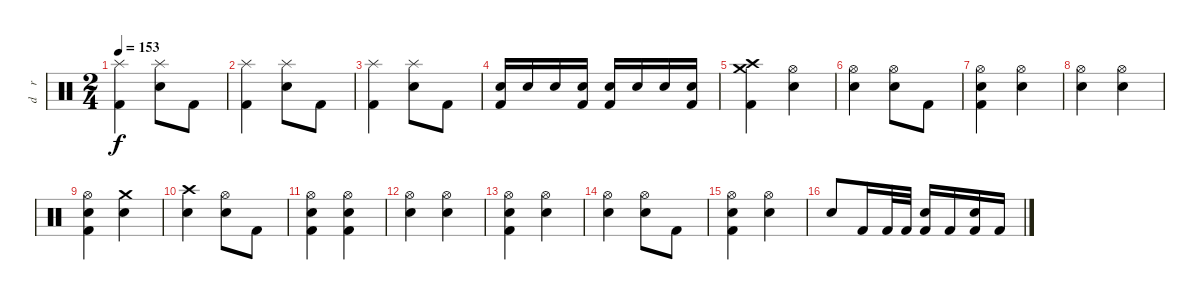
\track ("d    r     u    m    s" "d    r    ") {instrument percussion}
\staff {score}
\articulation defaults
\ts (2 4)
\tempo 153
\clef neutral
\ks c
("Splash (hit)" "Kick (hit) 2").4{dy f} ("Splash (hit)" "Electric Snare (hit)").8 "Kick (hit) 2".8 |
("Splash (hit)" "Kick (hit) 2").4 ("Splash (hit)" "Electric Snare (hit)").8 "Kick (hit) 2".8 |
("Splash (hit)" "Kick (hit) 2").4 ("Splash (hit)" "Electric Snare (hit)").8 "Kick (hit) 2".8 |
("Electric Snare (hit)" "Kick (hit) 2").16 "Electric Snare (hit)".16 "Electric Snare (hit)".16 ("Electric Snare (hit)" "Kick (hit) 2").16 ("Electric Snare (hit)" "Kick (hit) 2").16 "Electric Snare (hit)".16 "Electric Snare (hit)".16 ("Electric Snare (hit)" "Kick (hit) 2").16 |
("Crash high (hit)" "Crash medium (hit)" "Kick (hit) 2").4 ("Hi-Hat (open)" "Electric Snare (hit)").4 |
("Hi-Hat (open)" "Electric Snare (hit)").4 ("Hi-Hat (open)" "Electric Snare (hit)").8 "Kick (hit) 2".8 |
("Hi-Hat (open)" "Electric Snare (hit)" "Kick (hit) 2").4 ("Hi-Hat (open)" "Electric Snare (hit)").4 |
("Hi-Hat (open)" "Electric Snare (hit)").4 ("Hi-Hat (open)" "Electric Snare (hit)").4 |
("Hi-Hat (open)" "Electric Snare (hit)" "Kick (hit) 2").4 ("Crash medium (hit)" "Electric Snare (hit)").4 |
("Crash high (hit)" "Electric Snare (hit)").4 ("Hi-Hat (open)" "Electric Snare (hit)").8 "Kick (hit) 2".8 |
("Hi-Hat (open)" "Electric Snare (hit)" "Kick (hit) 2").4 ("Hi-Hat (open)" "Electric Snare (hit)" "Kick (hit) 2").4 |
("Hi-Hat (open)" "Electric Snare (hit)").4 ("Hi-Hat (open)" "Electric Snare (hit)").4 |
("Hi-Hat (open)" "Electric Snare (hit)" "Kick (hit) 2").4 ("Hi-Hat (open)" "Electric Snare (hit)").4 |
("Hi-Hat (open)" "Electric Snare (hit)").4 ("Hi-Hat (open)" "Electric Snare (hit)").8 "Kick (hit) 2".8 |
("Hi-Hat (open)" "Electric Snare (hit)" "Kick (hit) 2").4 ("Hi-Hat (open)" "Electric Snare (hit)").4 |
"Electric Snare (hit)".8{volume 8} "Kick (hit) 2".16 "Kick (hit) 2".32 "Kick (hit) 2".32 ("Electric Snare (hit)" "Kick (hit) 2").16 "Kick (hit) 2".16 ("Electric Snare (hit)" "Kick (hit) 2").16 "Kick (hit) 2".16
